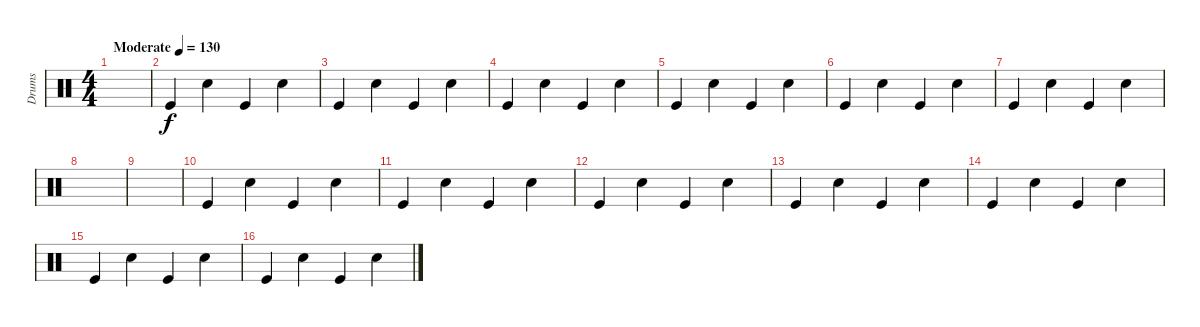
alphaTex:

\track ("Drums" "Drums") {instrument percussion}
\staff {score}
\articulation defaults
\ts (4 4)
\tempo (130 "Moderate")
\clef neutral
\ks c
|
"Kick (hit)".4 "Snare (hit) 2".4 "Kick (hit)".4 "Snare (hit) 2".4 |
"Kick (hit)".4 "Snare (hit) 2".4 "Kick (hit)".4 "Snare (hit) 2".4 |
"Kick (hit)".4 "Snare (hit) 2".4 "Kick (hit)".4 "Snare (hit) 2".4 |
"Kick (hit)".4 "Snare (hit) 2".4 "Kick (hit)".4 "Snare (hit) 2".4 |
"Kick (hit)".4 "Snare (hit) 2".4 "Kick (hit)".4 "Snare (hit) 2".4 |
"Kick (hit)".4 "Snare (hit) 2".4 "Kick (hit)".4 "Snare (hit) 2".4 |
|
|
"Kick (hit)".4 "Snare (hit) 2".4 "Kick (hit)".4 "Snare (hit) 2".4 |
"Kick (hit)".4 "Snare (hit) 2".4 "Kick (hit)".4 "Snare (hit) 2".4 |
"Kick (hit)".4 "Snare (hit) 2".4 "Kick (hit)".4 "Snare (hit) 2".4 |
"Kick (hit)".4 "Snare (hit) 2".4 "Kick (hit)".4 "Snare (hit) 2".4 |
"Kick (hit)".4 "Snare (hit) 2".4 "Kick (hit)".4 "Snare (hit) 2".4 |
"Kick (hit)".4 "Snare (hit) 2".4 "Kick (hit)".4 "Snare (hit) 2".4 |
"Kick (hit)".4 "Snare (hit) 2".4 "Kick (hit)".4 "Snare (hit) 2".4
